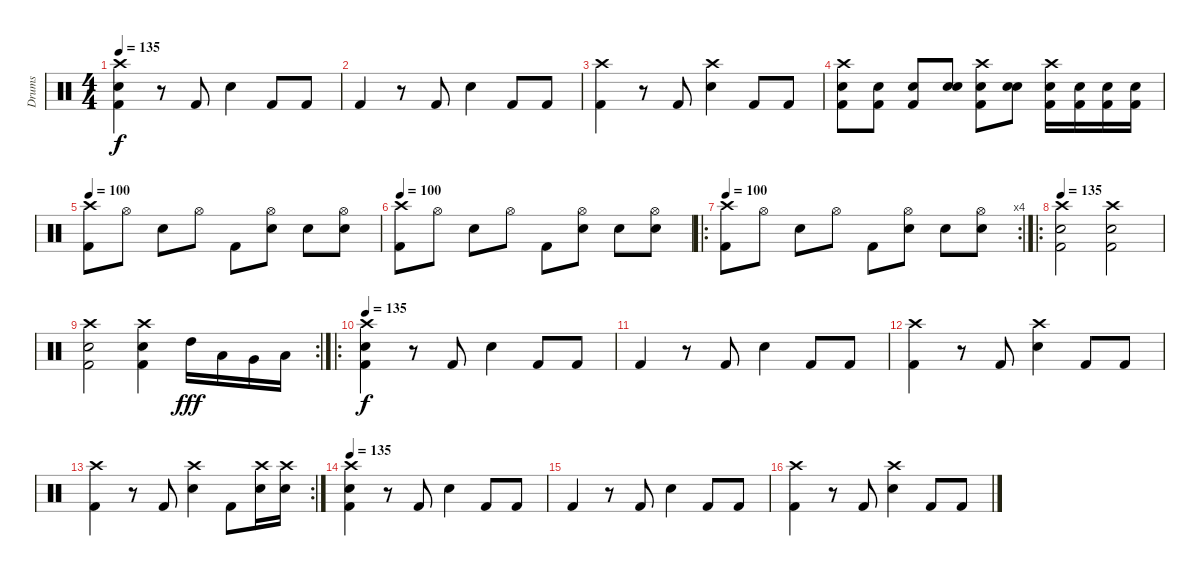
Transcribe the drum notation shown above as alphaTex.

\track ("Drums" "Drums") {instrument percussion}
\staff {score}
\articulation defaults
\ts (4 4)
\tempo 135
\clef neutral
\ks c
("Crash high (hit)" "Snare (hit) 2" "Kick (hit) 2").4{dy f} r.8 "Kick (hit) 2".8 "Snare (hit) 2".4 "Kick (hit) 2".8 "Kick (hit) 2".8 |
"Kick (hit) 2".4 r.8 "Kick (hit) 2".8 "Snare (hit) 2".4 "Kick (hit) 2".8 "Kick (hit) 2".8 |
("Crash high (hit)" "Kick (hit) 2").4 r.8 "Kick (hit) 2".8 ("Crash high (hit)" "Snare (hit) 2").4 "Kick (hit) 2".8 "Kick (hit) 2".8 |
("Crash high (hit)" "Snare (hit) 2" "Kick (hit) 2").8 ("Snare (hit) 2" "Kick (hit) 2").8 ("Snare (hit) 2" "Kick (hit) 2").8 ("Snare (hit) 2" "Snare (hit) 2").8 ("Crash high (hit)" "Snare (hit) 2" "Kick (hit) 2").8 ("Snare (hit) 2" "Snare (hit) 2").8 ("Crash high (hit)" "Kick (hit) 2" "Snare (hit) 2").16 ("Kick (hit) 2" "Snare (hit) 2").16 ("Kick (hit) 2" "Snare (hit) 2").16 ("Snare (hit) 2" "Kick (hit) 2").16 |
\tempo 100
("Crash high (hit)" "Kick (hit) 2").8 "Hi-Hat (open)".8 "Snare (hit) 2".8 "Hi-Hat (open)".8 "Kick (hit) 2".8 ("Hi-Hat (open)" "Snare (hit)").8 "Snare (hit) 2".8 ("Hi-Hat (open)" "Snare (hit)").8 |
\tempo 100
("Crash high (hit)" "Kick (hit) 2").8 "Hi-Hat (open)".8 "Snare (hit) 2".8 "Hi-Hat (open)".8 "Kick (hit) 2".8 ("Hi-Hat (open)" "Snare (hit)").8 "Snare (hit) 2".8 ("Hi-Hat (open)" "Snare (hit)").8 |
\ro
\rc 4
\tempo 100
("Crash high (hit)" "Kick (hit) 2").8 "Hi-Hat (open)".8 "Snare (hit) 2".8 "Hi-Hat (open)".8 "Kick (hit) 2".8 ("Hi-Hat (open)" "Snare (hit)").8 "Snare (hit) 2".8 ("Hi-Hat (open)" "Snare (hit)").8 |
\ro
\tempo 110
\tempo 135
("Crash high (hit)" "Snare (hit) 2" "Kick (hit) 2").2 ("Crash high (hit)" "Snare (hit) 2" "Kick (hit) 2").2 |
\rc 2
("Crash high (hit)" "Snare (hit) 2" "Kick (hit) 2").2 ("Crash high (hit)" "Snare (hit) 2" "Kick (hit) 2").4 "High Tom (hit)".16{dy fff} "Low Tom (hit)".16 "Very Low Tom (hit)".16 "Low Floor Tom (hit)".16 |
\ro
\tempo 135
("Crash high (hit)" "Snare (hit) 2" "Kick (hit) 2").4{dy f} r.8 "Kick (hit) 2".8 "Snare (hit) 2".4 "Kick (hit) 2".8 "Kick (hit) 2".8 |
"Kick (hit) 2".4 r.8 "Kick (hit) 2".8 "Snare (hit) 2".4 "Kick (hit) 2".8 "Kick (hit) 2".8 |
("Crash high (hit)" "Kick (hit) 2").4 r.8 "Kick (hit) 2".8 ("Crash high (hit)" "Snare (hit) 2").4 "Kick (hit) 2".8 "Kick (hit) 2".8 |
\rc 2
("Crash high (hit)" "Kick (hit) 2").4 r.8 "Kick (hit) 2".8 ("Crash high (hit)" "Snare (hit) 2").4 "Kick (hit) 2".8 ("Crash high (hit)" "Snare (hit) 2").16 ("Crash high (hit)" "Snare (hit) 2").16 |
\tempo 135
("Crash high (hit)" "Snare (hit) 2" "Kick (hit) 2").4 r.8 "Kick (hit) 2".8 "Snare (hit) 2".4 "Kick (hit) 2".8 "Kick (hit) 2".8 |
"Kick (hit) 2".4 r.8 "Kick (hit) 2".8 "Snare (hit) 2".4 "Kick (hit) 2".8 "Kick (hit) 2".8 |
("Crash high (hit)" "Kick (hit) 2").4 r.8 "Kick (hit) 2".8 ("Crash high (hit)" "Snare (hit) 2").4 "Kick (hit) 2".8 "Kick (hit) 2".8
